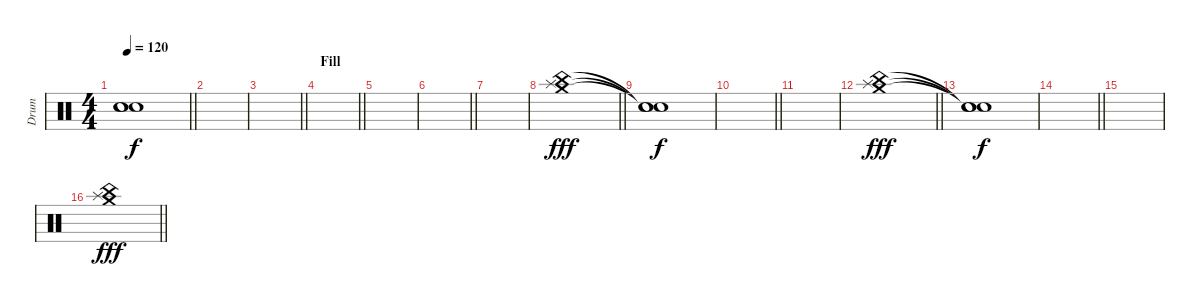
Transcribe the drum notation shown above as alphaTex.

\track ("Drum " "Drum ") {instrument percussion}
\staff {score}
\articulation defaults
\ts (4 4)
\tempo 120
\clef neutral
\barLineRight lightlight
\ks c
("Snare (hit)"{t} "Snare (hit)"{t} "Snare (hit)"{t}).1{dy f} |
|
\barLineRight lightlight
|
\section ("" "Fill")
\barLineRight lightlight
|
|
\barLineRight lightlight
|
|
\barLineRight lightlight
("China (hit)" "Splash (hit)" "Crash medium (hit)").1{dy fff} |
("Snare (hit)"{t} "Snare (hit)"{t} "Snare (hit)"{t}).1{dy f} |
\barLineRight lightlight
|
|
\barLineRight lightlight
("China (hit)" "Splash (hit)" "Crash medium (hit)").1{dy fff} |
("Snare (hit)"{t} "Snare (hit)"{t} "Snare (hit)"{t}).1{dy f} |
\barLineRight lightlight
|
|
\barLineRight lightlight
("China (hit)" "Splash (hit)" "Crash medium (hit)").1{dy fff}
